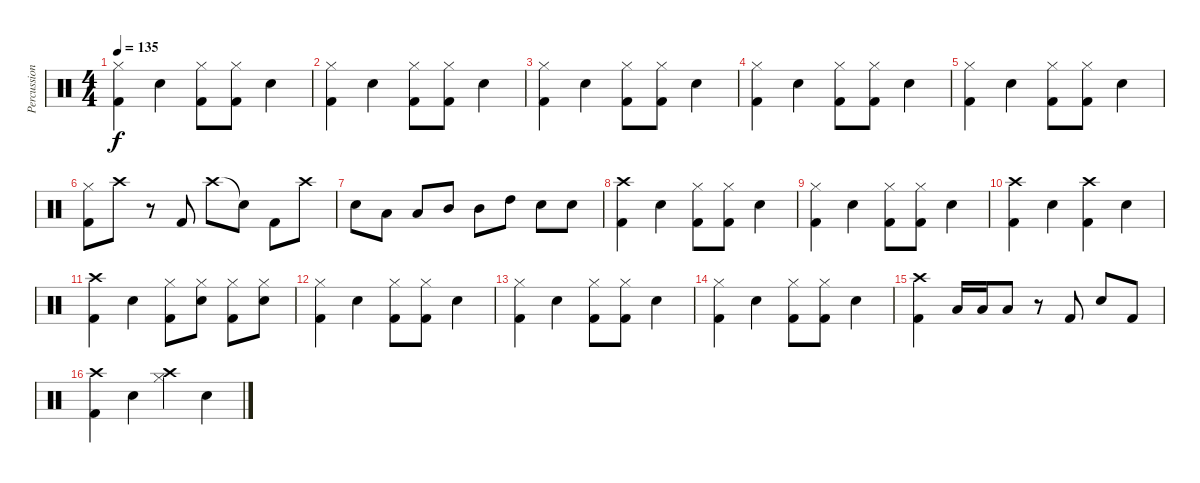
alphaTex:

\track ("Percussion" "Percussion") {instrument percussion}
\staff {score}
\articulation defaults
\ts (4 4)
\tempo 135
\clef neutral
\ks c
("Hi-Hat (closed)" "Kick (hit) 2").4{dy f} "Snare (hit) 2".4 ("Kick (hit) 2" "Hi-Hat (closed)").8 ("Kick (hit) 2" "Hi-Hat (closed)").8 "Snare (hit) 2".4 |
("Hi-Hat (closed)" "Kick (hit) 2").4 "Snare (hit) 2".4 ("Kick (hit) 2" "Hi-Hat (closed)").8 ("Kick (hit) 2" "Hi-Hat (closed)").8 "Snare (hit) 2".4 |
("Hi-Hat (closed)" "Kick (hit) 2").4 "Snare (hit) 2".4 ("Kick (hit) 2" "Hi-Hat (closed)").8 ("Kick (hit) 2" "Hi-Hat (closed)").8 "Snare (hit) 2".4 |
("Hi-Hat (closed)" "Kick (hit) 2").4 "Snare (hit) 2".4 ("Kick (hit) 2" "Hi-Hat (closed)").8 ("Kick (hit) 2" "Hi-Hat (closed)").8 "Snare (hit) 2".4 |
("Hi-Hat (closed)" "Kick (hit) 2").4 "Snare (hit) 2".4 ("Kick (hit) 2" "Hi-Hat (closed)").8 ("Kick (hit) 2" "Hi-Hat (closed)").8 "Snare (hit) 2".4 |
("Hi-Hat (closed)" "Kick (hit) 2").8 "Crash high (hit)".8 r.8 "Kick (hit) 2".8 "Crash high (hit)".8 "Snare (hit)"{t}.8 "Kick (hit) 2".8 "Crash high (hit)".8 |
"Snare (hit) 2".8 "Low Tom (hit)".8 "Low Tom (hit)".8 "Mid Tom (hit)".8 "Mid Tom (hit)".8 "High Tom (hit)".8 "Snare (hit) 2".8 "Snare (hit) 2".8 |
("Crash high (hit)" "Kick (hit) 2").4 "Snare (hit) 2".4 ("Kick (hit) 2" "Hi-Hat (closed)").8 ("Kick (hit) 2" "Hi-Hat (closed)").8 "Snare (hit) 2".4 |
("Hi-Hat (closed)" "Kick (hit) 2").4 "Snare (hit) 2".4 ("Kick (hit) 2" "Hi-Hat (closed)").8 ("Kick (hit) 2" "Hi-Hat (closed)").8 "Snare (hit) 2".4 |
("Crash high (hit)" "Kick (hit) 2").4 "Snare (hit) 2".4 ("Kick (hit) 2" "Crash high (hit)").4 "Snare (hit) 2".4 |
("Crash high (hit)" "Kick (hit) 2").4 "Snare (hit) 2".4 ("Kick (hit) 2" "Hi-Hat (closed)").8 ("Snare (hit) 2" "Hi-Hat (closed)").8 ("Kick (hit) 2" "Hi-Hat (closed)").8 ("Snare (hit) 2" "Hi-Hat (closed)").8 |
("Hi-Hat (closed)" "Kick (hit) 2").4 "Snare (hit) 2".4 ("Kick (hit) 2" "Hi-Hat (closed)").8 ("Kick (hit) 2" "Hi-Hat (closed)").8 "Snare (hit) 2".4 |
("Hi-Hat (closed)" "Kick (hit) 2").4 "Snare (hit) 2".4 ("Kick (hit) 2" "Hi-Hat (closed)").8 ("Kick (hit) 2" "Hi-Hat (closed)").8 "Snare (hit) 2".4 |
("Hi-Hat (closed)" "Kick (hit) 2").4 "Snare (hit) 2".4 ("Kick (hit) 2" "Hi-Hat (closed)").8 ("Kick (hit) 2" "Hi-Hat (closed)").8 "Snare (hit) 2".4 |
("Crash high (hit)" "Kick (hit) 2").4 "Low Tom (hit)".16 "Low Tom (hit)".16 "Low Tom (hit)".8 r.8 "Kick (hit) 2".8 "Snare (hit) 2".8 "Kick (hit) 2".8 |
("Crash high (hit)" "Kick (hit) 2").4 "Snare (hit) 2".4 ("Crash high (hit)" "Hi-Hat (closed)").4 "Snare (hit) 2".4
